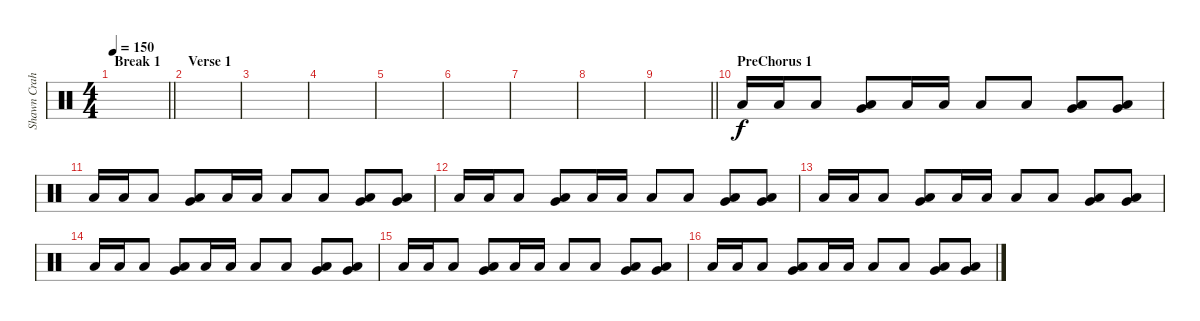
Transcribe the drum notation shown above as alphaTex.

\track ("Shawn Crahan" "Shawn Crah") {instrument percussion}
\staff {score}
\articulation defaults
\ts (4 4)
\section ("" "Break 1")
\tempo 150
\clef neutral
\barLineRight lightlight
\ks c
|
\section ("" "Verse 1")
|
|
|
|
|
|
|
\barLineRight lightlight
|
\section ("" "PreChorus 1")
"Low Floor Tom (hit)".16 "Low Floor Tom (hit)".16 "Low Floor Tom (hit)".8 ("Very Low Tom (hit)" "Low Floor Tom (hit)").8 "Low Floor Tom (hit)".16 "Low Floor Tom (hit)".16 "Low Floor Tom (hit)".8 "Low Floor Tom (hit)".8 ("Very Low Tom (hit)" "Low Floor Tom (hit)").8 ("Very Low Tom (hit)" "Low Floor Tom (hit)").8 |
"Low Floor Tom (hit)".16 "Low Floor Tom (hit)".16 "Low Floor Tom (hit)".8 ("Very Low Tom (hit)" "Low Floor Tom (hit)").8 "Low Floor Tom (hit)".16 "Low Floor Tom (hit)".16 "Low Floor Tom (hit)".8 "Low Floor Tom (hit)".8 ("Very Low Tom (hit)" "Low Floor Tom (hit)").8 ("Very Low Tom (hit)" "Low Floor Tom (hit)").8 |
"Low Floor Tom (hit)".16 "Low Floor Tom (hit)".16 "Low Floor Tom (hit)".8 ("Very Low Tom (hit)" "Low Floor Tom (hit)").8 "Low Floor Tom (hit)".16 "Low Floor Tom (hit)".16 "Low Floor Tom (hit)".8 "Low Floor Tom (hit)".8 ("Very Low Tom (hit)" "Low Floor Tom (hit)").8 ("Very Low Tom (hit)" "Low Floor Tom (hit)").8 |
"Low Floor Tom (hit)".16 "Low Floor Tom (hit)".16 "Low Floor Tom (hit)".8 ("Very Low Tom (hit)" "Low Floor Tom (hit)").8 "Low Floor Tom (hit)".16 "Low Floor Tom (hit)".16 "Low Floor Tom (hit)".8 "Low Floor Tom (hit)".8 ("Very Low Tom (hit)" "Low Floor Tom (hit)").8 ("Very Low Tom (hit)" "Low Floor Tom (hit)").8 |
"Low Floor Tom (hit)".16 "Low Floor Tom (hit)".16 "Low Floor Tom (hit)".8 ("Very Low Tom (hit)" "Low Floor Tom (hit)").8 "Low Floor Tom (hit)".16 "Low Floor Tom (hit)".16 "Low Floor Tom (hit)".8 "Low Floor Tom (hit)".8 ("Very Low Tom (hit)" "Low Floor Tom (hit)").8 ("Very Low Tom (hit)" "Low Floor Tom (hit)").8 |
"Low Floor Tom (hit)".16 "Low Floor Tom (hit)".16 "Low Floor Tom (hit)".8 ("Very Low Tom (hit)" "Low Floor Tom (hit)").8 "Low Floor Tom (hit)".16 "Low Floor Tom (hit)".16 "Low Floor Tom (hit)".8 "Low Floor Tom (hit)".8 ("Very Low Tom (hit)" "Low Floor Tom (hit)").8 ("Very Low Tom (hit)" "Low Floor Tom (hit)").8 |
"Low Floor Tom (hit)".16 "Low Floor Tom (hit)".16 "Low Floor Tom (hit)".8 ("Very Low Tom (hit)" "Low Floor Tom (hit)").8 "Low Floor Tom (hit)".16 "Low Floor Tom (hit)".16 "Low Floor Tom (hit)".8 "Low Floor Tom (hit)".8 ("Very Low Tom (hit)" "Low Floor Tom (hit)").8 ("Very Low Tom (hit)" "Low Floor Tom (hit)").8
